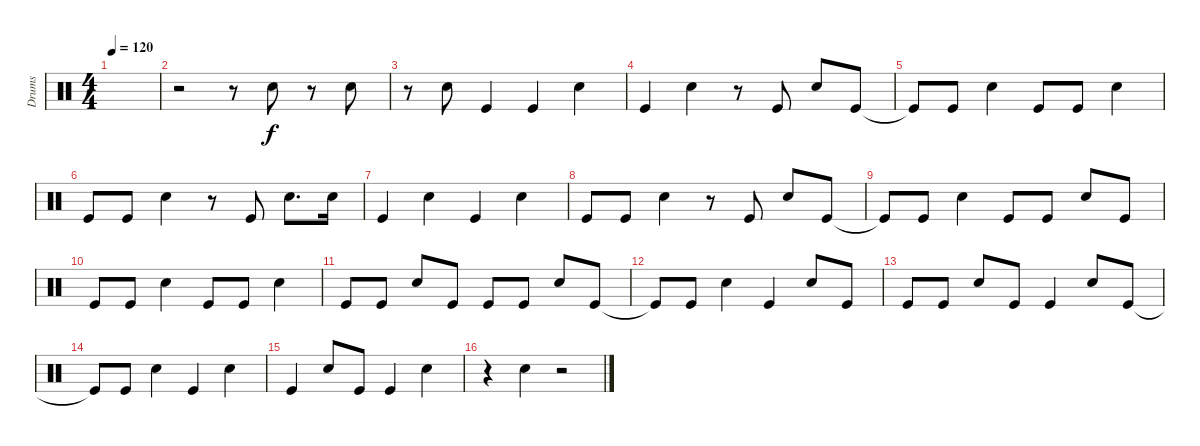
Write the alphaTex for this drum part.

\track ("Drums" "Drums") {instrument percussion}
\staff {score}
\articulation defaults
\ts (4 4)
\tempo 120
\clef neutral
\ks c
|
r.2 r.8 "Snare (hit) 2".8 r.8 "Snare (hit) 2".8 |
r.8 "Snare (hit) 2".8 "Kick (hit)".4 "Kick (hit)".4 "Snare (hit) 2".4 |
"Kick (hit)".4 "Snare (hit) 2".4 r.8 "Kick (hit)".8 "Snare (hit) 2".8 "Kick (hit)".8 |
"Kick (hit)"{t}.8 "Kick (hit)".8 "Snare (hit) 2".4 "Kick (hit)".8 "Kick (hit)".8 "Snare (hit) 2".4 |
"Kick (hit)".8 "Kick (hit)".8 "Snare (hit) 2".4 r.8 "Kick (hit)".8 "Snare (hit) 2".8{d} "Snare (hit) 2".16 |
"Kick (hit)".4 "Snare (hit) 2".4 "Kick (hit)".4 "Snare (hit) 2".4 |
"Kick (hit)".8 "Kick (hit)".8 "Snare (hit) 2".4 r.8 "Kick (hit)".8 "Snare (hit) 2".8 "Kick (hit)".8 |
"Kick (hit)"{t}.8 "Kick (hit)".8 "Snare (hit) 2".4 "Kick (hit)".8 "Kick (hit)".8 "Snare (hit) 2".8 "Kick (hit)".8 |
"Kick (hit)".8 "Kick (hit)".8 "Snare (hit) 2".4 "Kick (hit)".8 "Kick (hit)".8 "Snare (hit) 2".4 |
"Kick (hit)".8 "Kick (hit)".8 "Snare (hit) 2".8 "Kick (hit)".8 "Kick (hit)".8 "Kick (hit)".8 "Snare (hit) 2".8 "Kick (hit)".8 |
"Kick (hit)"{t}.8 "Kick (hit)".8 "Snare (hit) 2".4 "Kick (hit)".4 "Snare (hit) 2".8 "Kick (hit)".8 |
"Kick (hit)".8 "Kick (hit)".8 "Snare (hit) 2".8 "Kick (hit)".8 "Kick (hit)".4 "Snare (hit) 2".8 "Kick (hit)".8 |
"Kick (hit)"{t}.8 "Kick (hit)".8 "Snare (hit) 2".4 "Kick (hit)".4 "Snare (hit) 2".4 |
"Kick (hit)".4 "Snare (hit) 2".8 "Kick (hit)".8 "Kick (hit)".4 "Snare (hit) 2".4 |
r.4 "Snare (hit) 2".4 r.2
